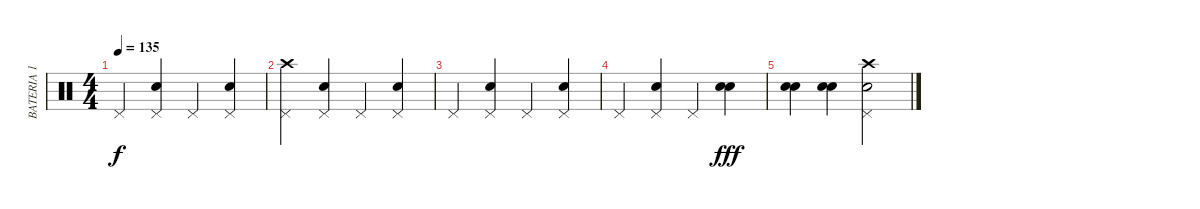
\track ("BATERIA 1" "BATERIA 1") {instrument percussion}
\staff {score}
\articulation defaults
\ts (4 4)
\tempo 135
\clef neutral
\ks c "Pedal Hi-Hat (hit)".4{dy f}
("Electric Snare (hit)" "Pedal Hi-Hat (hit)").4 "Pedal Hi-Hat (hit)".4 ("Electric Snare (hit)" "Pedal Hi-Hat (hit)").4 |
("Pedal Hi-Hat (hit)" "Crash high (hit)").4 ("Electric Snare (hit)" "Pedal Hi-Hat (hit)").4 "Pedal Hi-Hat (hit)".4 ("Electric Snare (hit)" "Pedal Hi-Hat (hit)").4 |
"Pedal Hi-Hat (hit)".4 ("Electric Snare (hit)" "Pedal Hi-Hat (hit)").4 "Pedal Hi-Hat (hit)".4 ("Electric Snare (hit)" "Pedal Hi-Hat (hit)").4 |
"Pedal Hi-Hat (hit)".4 ("Electric Snare (hit)" "Pedal Hi-Hat (hit)").4 "Pedal Hi-Hat (hit)".4 ("Electric Snare (hit)" "Snare (hit) 2").4{dy fff} |
("Electric Snare (hit)" "Snare (hit) 2").4 ("Electric Snare (hit)" "Snare (hit) 2").4 ("Electric Snare (hit)" "Pedal Hi-Hat (hit)" "Crash high (hit)").2
